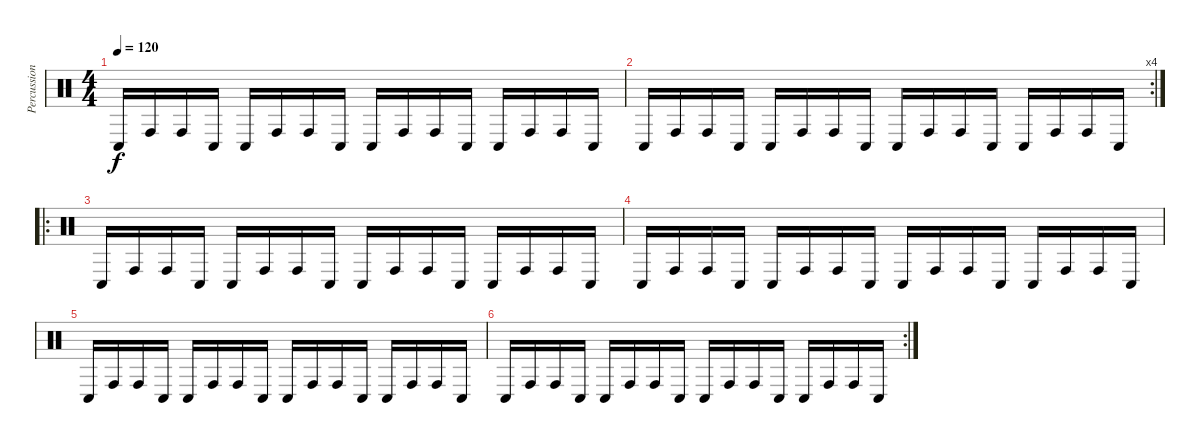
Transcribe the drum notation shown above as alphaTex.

\track ("Percussions" "Percussion") {instrument percussion}
\staff {score}
\articulation defaults
\ts (4 4)
\tempo 120
\clef neutral
\ks c "Conga low (hit)".16{dy f} "Conga high (hit)".16 "Conga high (hit)".16 "Conga low (hit)".16 "Conga low (hit)".16 "Conga high (hit)".16 "Conga high (hit)".16 "Conga low (hit)".16 "Conga low (hit)".16 "Conga high (hit)".16 "Conga high (hit)".16 "Conga low (hit)".16 "Conga low (hit)".16 "Conga high (hit)".16 "Conga high (hit)".16 "Conga low (hit)".16
|
\rc 4 "Conga low (hit)".16 "Conga high (hit)".16 "Conga high (hit)".16 "Conga low (hit)".16 "Conga low (hit)".16 "Conga high (hit)".16 "Conga high (hit)".16 "Conga low (hit)".16 "Conga low (hit)".16 "Conga high (hit)".16 "Conga high (hit)".16 "Conga low (hit)".16 "Conga low (hit)".16 "Conga high (hit)".16 "Conga high (hit)".16 "Conga low (hit)".16
|
\ro "Conga low (hit)".16 "Conga high (hit)".16 "Conga high (hit)".16 "Conga low (hit)".16 "Conga low (hit)".16 "Conga high (hit)".16 "Conga high (hit)".16 "Conga low (hit)".16 "Conga low (hit)".16 "Conga high (hit)".16 "Conga high (hit)".16 "Conga low (hit)".16 "Conga low (hit)".16 "Conga high (hit)".16 "Conga high (hit)".16 "Conga low (hit)".16
|
"Conga low (hit)".16 "Conga high (hit)".16 "Conga high (hit)".16 "Conga low (hit)".16 "Conga low (hit)".16 "Conga high (hit)".16 "Conga high (hit)".16 "Conga low (hit)".16 "Conga low (hit)".16 "Conga high (hit)".16 "Conga high (hit)".16 "Conga low (hit)".16 "Conga low (hit)".16 "Conga high (hit)".16 "Conga high (hit)".16 "Conga low (hit)".16 |
"Conga low (hit)".16 "Conga high (hit)".16 "Conga high (hit)".16 "Conga low (hit)".16 "Conga low (hit)".16 "Conga high (hit)".16 "Conga high (hit)".16 "Conga low (hit)".16 "Conga low (hit)".16 "Conga high (hit)".16 "Conga high (hit)".16 "Conga low (hit)".16 "Conga low (hit)".16 "Conga high (hit)".16 "Conga high (hit)".16 "Conga low (hit)".16 |
\rc 2 "Conga low (hit)".16 "Conga high (hit)".16 "Conga high (hit)".16 "Conga low (hit)".16 "Conga low (hit)".16 "Conga high (hit)".16 "Conga high (hit)".16 "Conga low (hit)".16 "Conga low (hit)".16 "Conga high (hit)".16 "Conga high (hit)".16 "Conga low (hit)".16 "Conga low (hit)".16 "Conga high (hit)".16 "Conga high (hit)".16 "Conga low (hit)".16
